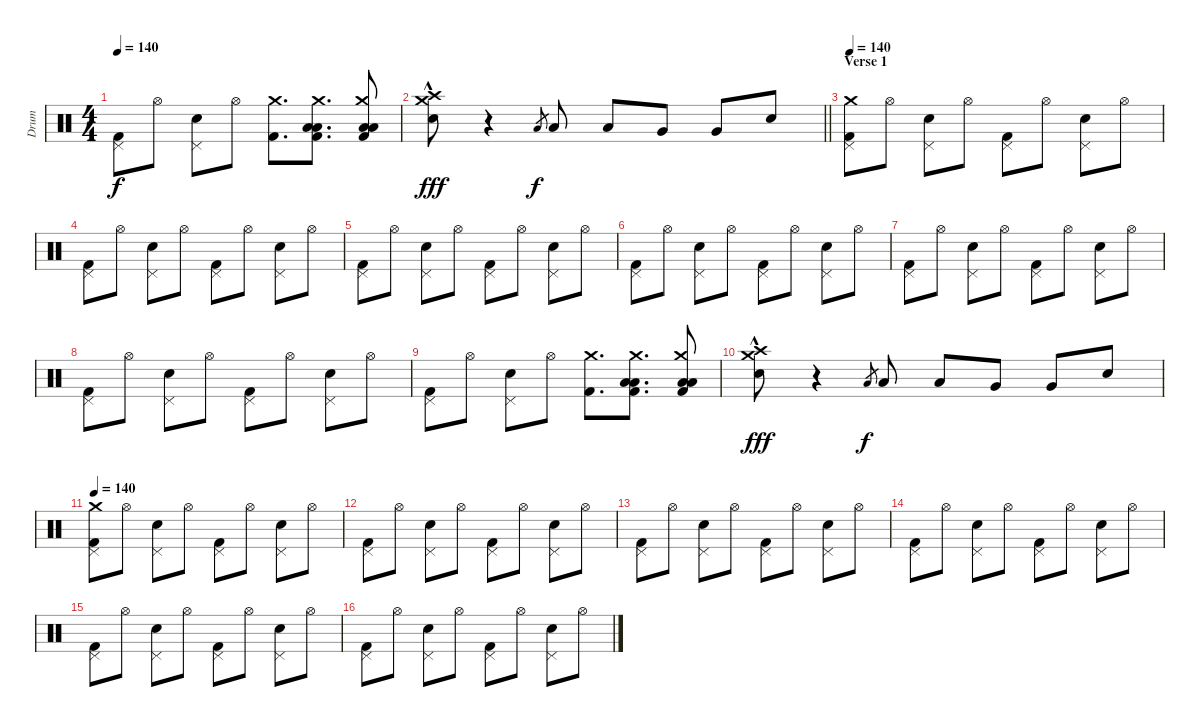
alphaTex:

\track ("Drum" "Drum") {instrument percussion}
\staff {score}
\articulation defaults
\ts (4 4)
\tempo 140
\clef neutral
\ks c
("Pedal Hi-Hat (hit)" "Kick (hit) 2").8{dy f} "Hi-Hat (open)".8 ("Pedal Hi-Hat (hit)" "Electric Snare (hit)").8 "Hi-Hat (open)".8 ("Crash medium (hit)" "Kick (hit) 2").8{d} ("Crash medium (hit)" "Low Tom (hit)" "Low Tom (hit)" "Kick (hit) 2").8{d} ("Crash medium (hit)" "Low Tom (hit)" "Low Tom (hit)" "Kick (hit) 2").8 |
\barLineRight lightlight
("Crash medium (hit)" "Crash high (hit)" "Electric Snare (hit)"{hac}).8{dy fff} r.4 "Low Tom (hit)".8{gr dy f} "Low Tom (hit)".8 "Low Tom (hit)".8 "Very Low Tom (hit)".8 "Very Low Tom (hit)".8 "Electric Snare (hit)".8 |
\section ("" "Verse 1")
\tempo 140
("Crash medium (hit)" "Pedal Hi-Hat (hit)" "Kick (hit) 2").8 "Hi-Hat (open)".8 ("Pedal Hi-Hat (hit)" "Electric Snare (hit)").8 "Hi-Hat (open)".8 ("Pedal Hi-Hat (hit)" "Kick (hit) 2").8 "Hi-Hat (open)".8 ("Pedal Hi-Hat (hit)" "Electric Snare (hit)").8 "Hi-Hat (open)".8 |
("Pedal Hi-Hat (hit)" "Kick (hit) 2").8 "Hi-Hat (open)".8 ("Pedal Hi-Hat (hit)" "Electric Snare (hit)").8 "Hi-Hat (open)".8 ("Pedal Hi-Hat (hit)" "Kick (hit) 2").8 "Hi-Hat (open)".8 ("Pedal Hi-Hat (hit)" "Electric Snare (hit)").8 "Hi-Hat (open)".8 |
("Pedal Hi-Hat (hit)" "Kick (hit) 2").8 "Hi-Hat (open)".8 ("Pedal Hi-Hat (hit)" "Electric Snare (hit)").8 "Hi-Hat (open)".8 ("Pedal Hi-Hat (hit)" "Kick (hit) 2").8 "Hi-Hat (open)".8 ("Pedal Hi-Hat (hit)" "Electric Snare (hit)").8 "Hi-Hat (open)".8 |
("Pedal Hi-Hat (hit)" "Kick (hit) 2").8 "Hi-Hat (open)".8 ("Pedal Hi-Hat (hit)" "Electric Snare (hit)").8 "Hi-Hat (open)".8 ("Pedal Hi-Hat (hit)" "Kick (hit) 2").8 "Hi-Hat (open)".8 ("Pedal Hi-Hat (hit)" "Electric Snare (hit)").8 "Hi-Hat (open)".8 |
("Pedal Hi-Hat (hit)" "Kick (hit) 2").8 "Hi-Hat (open)".8 ("Pedal Hi-Hat (hit)" "Electric Snare (hit)").8 "Hi-Hat (open)".8 ("Pedal Hi-Hat (hit)" "Kick (hit) 2").8 "Hi-Hat (open)".8 ("Pedal Hi-Hat (hit)" "Electric Snare (hit)").8 "Hi-Hat (open)".8 |
("Pedal Hi-Hat (hit)" "Kick (hit) 2").8 "Hi-Hat (open)".8 ("Pedal Hi-Hat (hit)" "Electric Snare (hit)").8 "Hi-Hat (open)".8 ("Pedal Hi-Hat (hit)" "Kick (hit) 2").8 "Hi-Hat (open)".8 ("Pedal Hi-Hat (hit)" "Electric Snare (hit)").8 "Hi-Hat (open)".8 |
("Pedal Hi-Hat (hit)" "Kick (hit) 2").8 "Hi-Hat (open)".8 ("Pedal Hi-Hat (hit)" "Electric Snare (hit)").8 "Hi-Hat (open)".8 ("Crash medium (hit)" "Kick (hit) 2").8{d} ("Crash medium (hit)" "Low Tom (hit)" "Low Tom (hit)" "Kick (hit) 2").8{d} ("Crash medium (hit)" "Low Tom (hit)" "Low Tom (hit)" "Kick (hit) 2").8 |
("Crash medium (hit)" "Crash high (hit)" "Electric Snare (hit)"{hac}).8{dy fff} r.4 "Low Tom (hit)".8{gr dy f} "Low Tom (hit)".8 "Low Tom (hit)".8 "Very Low Tom (hit)".8 "Very Low Tom (hit)".8 "Electric Snare (hit)".8 |
\tempo 140
("Crash medium (hit)" "Pedal Hi-Hat (hit)" "Kick (hit) 2").8 "Hi-Hat (open)".8 ("Pedal Hi-Hat (hit)" "Electric Snare (hit)").8 "Hi-Hat (open)".8 ("Pedal Hi-Hat (hit)" "Kick (hit) 2").8 "Hi-Hat (open)".8 ("Pedal Hi-Hat (hit)" "Electric Snare (hit)").8 "Hi-Hat (open)".8 |
("Pedal Hi-Hat (hit)" "Kick (hit) 2").8 "Hi-Hat (open)".8 ("Pedal Hi-Hat (hit)" "Electric Snare (hit)").8 "Hi-Hat (open)".8 ("Pedal Hi-Hat (hit)" "Kick (hit) 2").8 "Hi-Hat (open)".8 ("Pedal Hi-Hat (hit)" "Electric Snare (hit)").8 "Hi-Hat (open)".8 |
("Pedal Hi-Hat (hit)" "Kick (hit) 2").8 "Hi-Hat (open)".8 ("Pedal Hi-Hat (hit)" "Electric Snare (hit)").8 "Hi-Hat (open)".8 ("Pedal Hi-Hat (hit)" "Kick (hit) 2").8 "Hi-Hat (open)".8 ("Pedal Hi-Hat (hit)" "Electric Snare (hit)").8 "Hi-Hat (open)".8 |
("Pedal Hi-Hat (hit)" "Kick (hit) 2").8 "Hi-Hat (open)".8 ("Pedal Hi-Hat (hit)" "Electric Snare (hit)").8 "Hi-Hat (open)".8 ("Pedal Hi-Hat (hit)" "Kick (hit) 2").8 "Hi-Hat (open)".8 ("Pedal Hi-Hat (hit)" "Electric Snare (hit)").8 "Hi-Hat (open)".8 |
("Pedal Hi-Hat (hit)" "Kick (hit) 2").8 "Hi-Hat (open)".8 ("Pedal Hi-Hat (hit)" "Electric Snare (hit)").8 "Hi-Hat (open)".8 ("Pedal Hi-Hat (hit)" "Kick (hit) 2").8 "Hi-Hat (open)".8 ("Pedal Hi-Hat (hit)" "Electric Snare (hit)").8 "Hi-Hat (open)".8 |
("Pedal Hi-Hat (hit)" "Kick (hit) 2").8 "Hi-Hat (open)".8 ("Pedal Hi-Hat (hit)" "Electric Snare (hit)").8 "Hi-Hat (open)".8 ("Pedal Hi-Hat (hit)" "Kick (hit) 2").8 "Hi-Hat (open)".8 ("Pedal Hi-Hat (hit)" "Electric Snare (hit)").8 "Hi-Hat (open)".8
